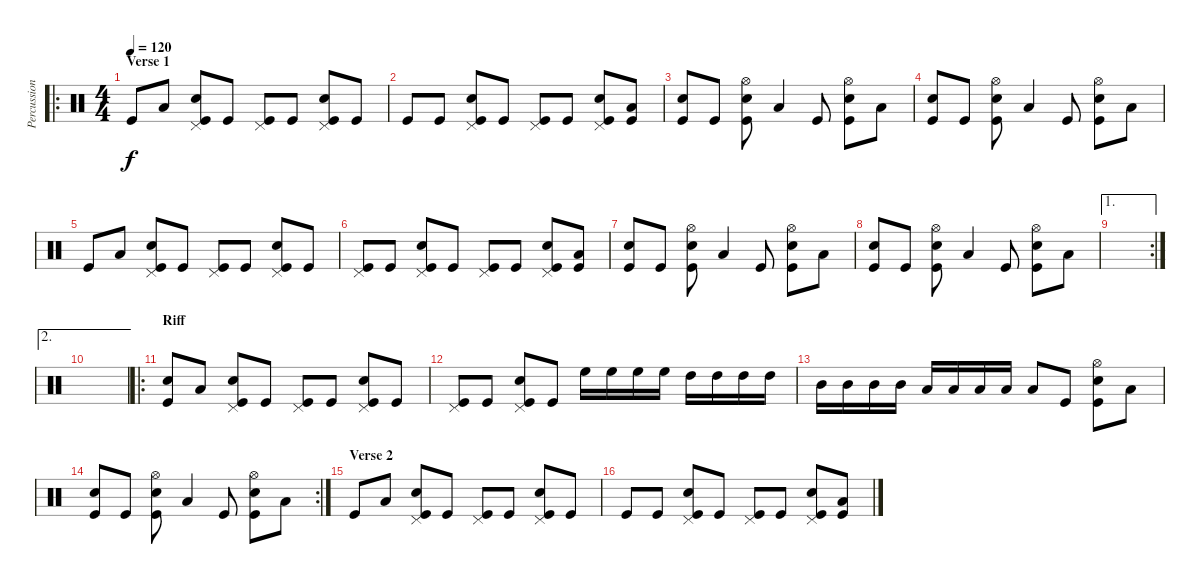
\track ("Percussion" "Percussion") {instrument percussion}
\staff {score}
\articulation defaults
\ro
\ts (4 4)
\section ("" "Verse 1")
\tempo 120
\clef neutral
\ks c "Kick (hit)".8{dy f} "Low Tom (hit)".8
("Snare (hit) 2" "Kick (hit)" "Pedal Hi-Hat (hit)").8 "Kick (hit)".8 ("Kick (hit)" "Pedal Hi-Hat (hit)").8 "Kick (hit)".8 ("Snare (hit) 2" "Kick (hit)" "Pedal Hi-Hat (hit)").8 "Kick (hit)".8 |
"Kick (hit)".8 "Kick (hit)".8 ("Snare (hit) 2" "Kick (hit)" "Pedal Hi-Hat (hit)").8 "Kick (hit)".8 ("Kick (hit)" "Pedal Hi-Hat (hit)").8 "Kick (hit)".8 ("Snare (hit) 2" "Kick (hit)" "Pedal Hi-Hat (hit)").8 ("Low Tom (hit)" "Kick (hit)").8 |
("Kick (hit)" "Snare (hit) 2").8 "Kick (hit)".8 ("Snare (hit) 2" "Kick (hit)" "Hi-Hat (open)").8 "Low Floor Tom (hit)".4 "Kick (hit)".8 ("Snare (hit) 2" "Kick (hit)" "Hi-Hat (open)").8 "Low Tom (hit)".8 |
("Kick (hit)" "Snare (hit) 2").8 "Kick (hit)".8 ("Snare (hit) 2" "Kick (hit)" "Hi-Hat (open)").8 "Low Floor Tom (hit)".4 "Kick (hit)".8 ("Snare (hit) 2" "Kick (hit)" "Hi-Hat (open)").8 "Low Tom (hit)".8 |
"Kick (hit)".8 "Low Tom (hit)".8 ("Snare (hit) 2" "Kick (hit)" "Pedal Hi-Hat (hit)").8 "Kick (hit)".8 ("Kick (hit)" "Pedal Hi-Hat (hit)").8 "Kick (hit)".8 ("Snare (hit) 2" "Kick (hit)" "Pedal Hi-Hat (hit)").8 "Kick (hit)".8 |
("Kick (hit)" "Pedal Hi-Hat (hit)").8 "Kick (hit)".8 ("Snare (hit) 2" "Kick (hit)" "Pedal Hi-Hat (hit)").8 "Kick (hit)".8 ("Kick (hit)" "Pedal Hi-Hat (hit)").8 "Kick (hit)".8 ("Snare (hit) 2" "Kick (hit)" "Pedal Hi-Hat (hit)").8 ("Low Tom (hit)" "Kick (hit)").8 |
("Kick (hit)" "Snare (hit) 2").8 "Kick (hit)".8 ("Snare (hit) 2" "Kick (hit)" "Hi-Hat (open)").8 "Low Floor Tom (hit)".4 "Kick (hit)".8 ("Snare (hit) 2" "Kick (hit)" "Hi-Hat (open)").8 "Low Tom (hit)".8 |
("Kick (hit)" "Snare (hit) 2").8 "Kick (hit)".8 ("Snare (hit) 2" "Kick (hit)" "Hi-Hat (open)").8 "Low Floor Tom (hit)".4 "Kick (hit)".8 ("Snare (hit) 2" "Kick (hit)" "Hi-Hat (open)").8 "Low Floor Tom (hit)".8 |
\ae 1
\rc 2
|
\ae 2
|
\ro
\section ("" "Riff")
("Electric Snare (hit)" "Kick (hit)").8 "Low Tom (hit)".8 ("Snare (hit) 2" "Kick (hit)" "Pedal Hi-Hat (hit)").8 "Kick (hit)".8 ("Kick (hit)" "Pedal Hi-Hat (hit)").8 "Kick (hit)".8 ("Electric Snare (hit)" "Kick (hit)" "Pedal Hi-Hat (hit)").8 "Kick (hit)".8 |
("Kick (hit)" "Pedal Hi-Hat (hit)").8 "Kick (hit)".8 ("Electric Snare (hit)" "Kick (hit)" "Pedal Hi-Hat (hit)").8 "Kick (hit)".8 "High Floor Tom (hit)".16 "High Floor Tom (hit)".16 "High Floor Tom (hit)".16 "High Floor Tom (hit)".16 "High Tom (hit)".16 "High Tom (hit)".16 "High Tom (hit)".16 "High Tom (hit)".16 |
"Mid Tom (hit)".16 "Mid Tom (hit)".16 "Mid Tom (hit)".16 "Mid Tom (hit)".16 "Low Tom (hit)".16 "Low Tom (hit)".16 "Low Tom (hit)".16 "Low Tom (hit)".16 "Low Floor Tom (hit)".8 "Kick (hit)".8 ("Snare (hit) 2" "Kick (hit)" "Hi-Hat (open)").8 "Low Floor Tom (hit)".8 |
\rc 2
("Kick (hit)" "Snare (hit) 2").8 "Kick (hit)".8 ("Snare (hit) 2" "Kick (hit)" "Hi-Hat (open)").8 "Low Floor Tom (hit)".4 "Kick (hit)".8 ("Snare (hit) 2" "Kick (hit)" "Hi-Hat (open)").8 "Low Floor Tom (hit)".8 |
\section ("" "Verse 2")
"Kick (hit)".8 "Low Tom (hit)".8 ("Snare (hit) 2" "Kick (hit)" "Pedal Hi-Hat (hit)").8 "Kick (hit)".8 ("Kick (hit)" "Pedal Hi-Hat (hit)").8 "Kick (hit)".8 ("Snare (hit) 2" "Kick (hit)" "Pedal Hi-Hat (hit)").8 "Kick (hit)".8 |
"Kick (hit)".8 "Kick (hit)".8 ("Snare (hit) 2" "Kick (hit)" "Pedal Hi-Hat (hit)").8 "Kick (hit)".8 ("Kick (hit)" "Pedal Hi-Hat (hit)").8 "Kick (hit)".8 ("Snare (hit) 2" "Kick (hit)" "Pedal Hi-Hat (hit)").8 ("Low Tom (hit)" "Kick (hit)").8
